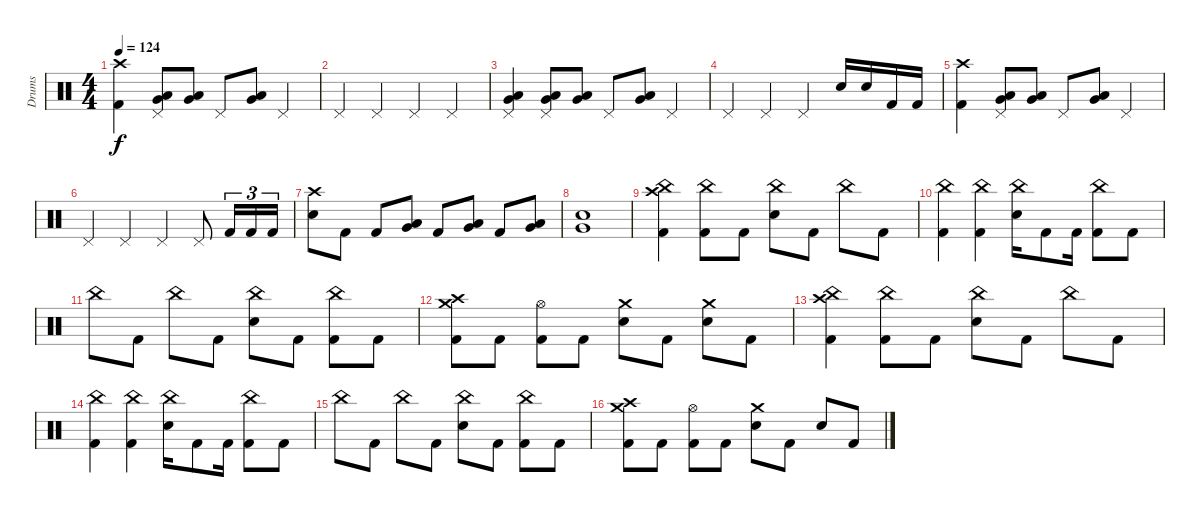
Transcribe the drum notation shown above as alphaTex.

\track ("Drums" "Drums") {instrument percussion}
\staff {score}
\articulation defaults
\ts (4 4)
\tempo 124
\clef neutral
\ks c
("Crash high (hit)" "Kick (hit) 2").4{dy f} ("Pedal Hi-Hat (hit)" "Very Low Tom (hit)" "Low Floor Tom (hit)").8 ("Very Low Tom (hit)" "Low Floor Tom (hit)").8 "Pedal Hi-Hat (hit)".8 ("Very Low Tom (hit)" "Low Floor Tom (hit)").8 "Pedal Hi-Hat (hit)".4 |
"Pedal Hi-Hat (hit)".4 "Pedal Hi-Hat (hit)".4 "Pedal Hi-Hat (hit)".4 "Pedal Hi-Hat (hit)".4 |
("Pedal Hi-Hat (hit)" "Very Low Tom (hit)" "Low Floor Tom (hit)").4 ("Pedal Hi-Hat (hit)" "Very Low Tom (hit)" "Low Floor Tom (hit)").8 ("Very Low Tom (hit)" "Low Floor Tom (hit)").8 "Pedal Hi-Hat (hit)".8 ("Very Low Tom (hit)" "Low Floor Tom (hit)").8 "Pedal Hi-Hat (hit)".4 |
"Pedal Hi-Hat (hit)".4 "Pedal Hi-Hat (hit)".4 "Pedal Hi-Hat (hit)".4 "Electric Snare (hit)".16 "Electric Snare (hit)".16 "Kick (hit) 2".16 "Kick (hit) 2".16 |
("Crash high (hit)" "Kick (hit) 2").4 ("Pedal Hi-Hat (hit)" "Very Low Tom (hit)" "Low Floor Tom (hit)").8 ("Very Low Tom (hit)" "Low Floor Tom (hit)").8 "Pedal Hi-Hat (hit)".8 ("Very Low Tom (hit)" "Low Floor Tom (hit)").8 "Pedal Hi-Hat (hit)".4 |
"Pedal Hi-Hat (hit)".4 "Pedal Hi-Hat (hit)".4 "Pedal Hi-Hat (hit)".4 "Pedal Hi-Hat (hit)".8 "Kick (hit) 2".16{tu (3 2)} "Kick (hit) 2".16{tu (3 2)} "Kick (hit) 2".16{tu (3 2)} |
("Crash high (hit)" "Electric Snare (hit)").8 "Kick (hit) 2".8 "Kick (hit) 2".8 ("Low Tom (hit)" "Very Low Tom (hit)").8 "Kick (hit) 2".8 ("Low Tom (hit)" "Very Low Tom (hit)").8 "Kick (hit) 2".8 ("Low Tom (hit)" "Very Low Tom (hit)").8 |
("Very Low Tom (hit)" "Electric Snare (hit)").1 |
("China (hit)" "Crash high (hit)" "Kick (hit) 2").4 ("China (hit)" "Kick (hit) 2").8 "Kick (hit) 2".8 ("China (hit)" "Electric Snare (hit)").8 "Kick (hit) 2".8 "China (hit)".8 "Kick (hit) 2".8 |
("China (hit)" "Kick (hit) 2").4 ("China (hit)" "Kick (hit) 2").4 ("China (hit)" "Electric Snare (hit)").16 "Kick (hit) 2".8 "Kick (hit) 2".16 ("China (hit)" "Kick (hit) 2").8 "Kick (hit) 2".8 |
"China (hit)".8 "Kick (hit) 2".8 "China (hit)".8 "Kick (hit) 2".8 ("China (hit)" "Electric Snare (hit)").8 "Kick (hit) 2".8 ("China (hit)" "Kick (hit) 2").8 "Kick (hit) 2".8 |
("Crash high (hit)" "Crash medium (hit)" "Kick (hit) 2").8 "Kick (hit) 2".8 ("Hi-Hat (open)" "Kick (hit) 2").8 "Kick (hit) 2".8 ("Crash medium (hit)" "Electric Snare (hit)").8 "Kick (hit) 2".8 ("Crash medium (hit)" "Electric Snare (hit)").8 "Kick (hit) 2".8 |
("China (hit)" "Crash high (hit)" "Kick (hit) 2").4 ("China (hit)" "Kick (hit) 2").8 "Kick (hit) 2".8 ("China (hit)" "Electric Snare (hit)").8 "Kick (hit) 2".8 "China (hit)".8 "Kick (hit) 2".8 |
("China (hit)" "Kick (hit) 2").4 ("China (hit)" "Kick (hit) 2").4 ("China (hit)" "Electric Snare (hit)").16 "Kick (hit) 2".8 "Kick (hit) 2".16 ("China (hit)" "Kick (hit) 2").8 "Kick (hit) 2".8 |
"China (hit)".8 "Kick (hit) 2".8 "China (hit)".8 "Kick (hit) 2".8 ("China (hit)" "Electric Snare (hit)").8 "Kick (hit) 2".8 ("China (hit)" "Kick (hit) 2").8 "Kick (hit) 2".8 |
("Crash high (hit)" "Crash medium (hit)" "Kick (hit) 2").8 "Kick (hit) 2".8 ("Hi-Hat (open)" "Kick (hit) 2").8 "Kick (hit) 2".8 ("Crash medium (hit)" "Electric Snare (hit)").8 "Kick (hit) 2".8 "Electric Snare (hit)".8 "Kick (hit) 2".8
